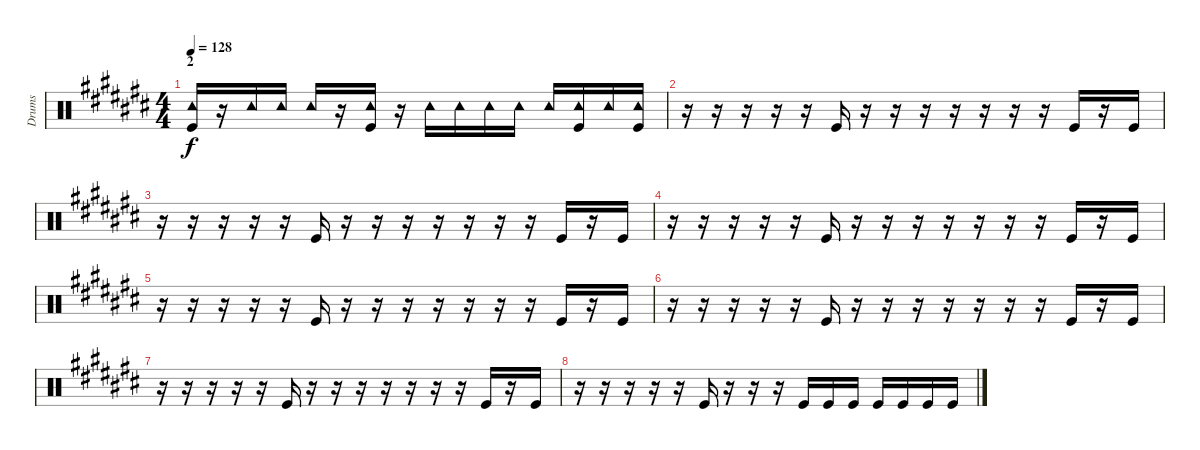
\track ("Drums" "Drums") {instrument percussion}
\staff {score}
\articulation defaults
\ts (4 4)
\section ("" "2")
\tempo 128
\clef neutral
\ks c#
("Tambourine (hit)" "Kick (hit)").16{dy f} r.16 "Tambourine (hit)".16 "Tambourine (hit)".16 "Tambourine (hit)".16 r.16 ("Tambourine (hit)" "Kick (hit)").16 r.16 "Tambourine (hit)".16 "Tambourine (hit)".16 "Tambourine (hit)".16 "Tambourine (hit)".16 "Tambourine (hit)".16 ("Tambourine (hit)" "Kick (hit)").16 "Tambourine (hit)".16 ("Tambourine (hit)" "Kick (hit)").16 |
r.16 r.16 r.16 r.16 r.16 "Kick (hit)".16 r.16 r.16 r.16 r.16 r.16 r.16 r.16 "Kick (hit)".16 r.16 "Kick (hit)".16 |
r.16 r.16 r.16 r.16 r.16 "Kick (hit)".16 r.16 r.16 r.16 r.16 r.16 r.16 r.16 "Kick (hit)".16 r.16 "Kick (hit)".16 |
r.16 r.16 r.16 r.16 r.16 "Kick (hit)".16 r.16 r.16 r.16 r.16 r.16 r.16 r.16 "Kick (hit)".16 r.16 "Kick (hit)".16 |
r.16 r.16 r.16 r.16 r.16 "Kick (hit)".16 r.16 r.16 r.16 r.16 r.16 r.16 r.16 "Kick (hit)".16 r.16 "Kick (hit)".16 |
r.16 r.16 r.16 r.16 r.16 "Kick (hit)".16 r.16 r.16 r.16 r.16 r.16 r.16 r.16 "Kick (hit)".16 r.16 "Kick (hit)".16 |
r.16 r.16 r.16 r.16 r.16 "Kick (hit)".16 r.16 r.16 r.16 r.16 r.16 r.16 r.16 "Kick (hit)".16 r.16 "Kick (hit)".16 |
r.16 r.16 r.16 r.16 r.16 "Kick (hit)".16 r.16 r.16 r.16 "Kick (hit)".16 "Kick (hit)".16 "Kick (hit)".16 "Kick (hit)".16 "Kick (hit)".16 "Kick (hit)".16 "Kick (hit)".16
